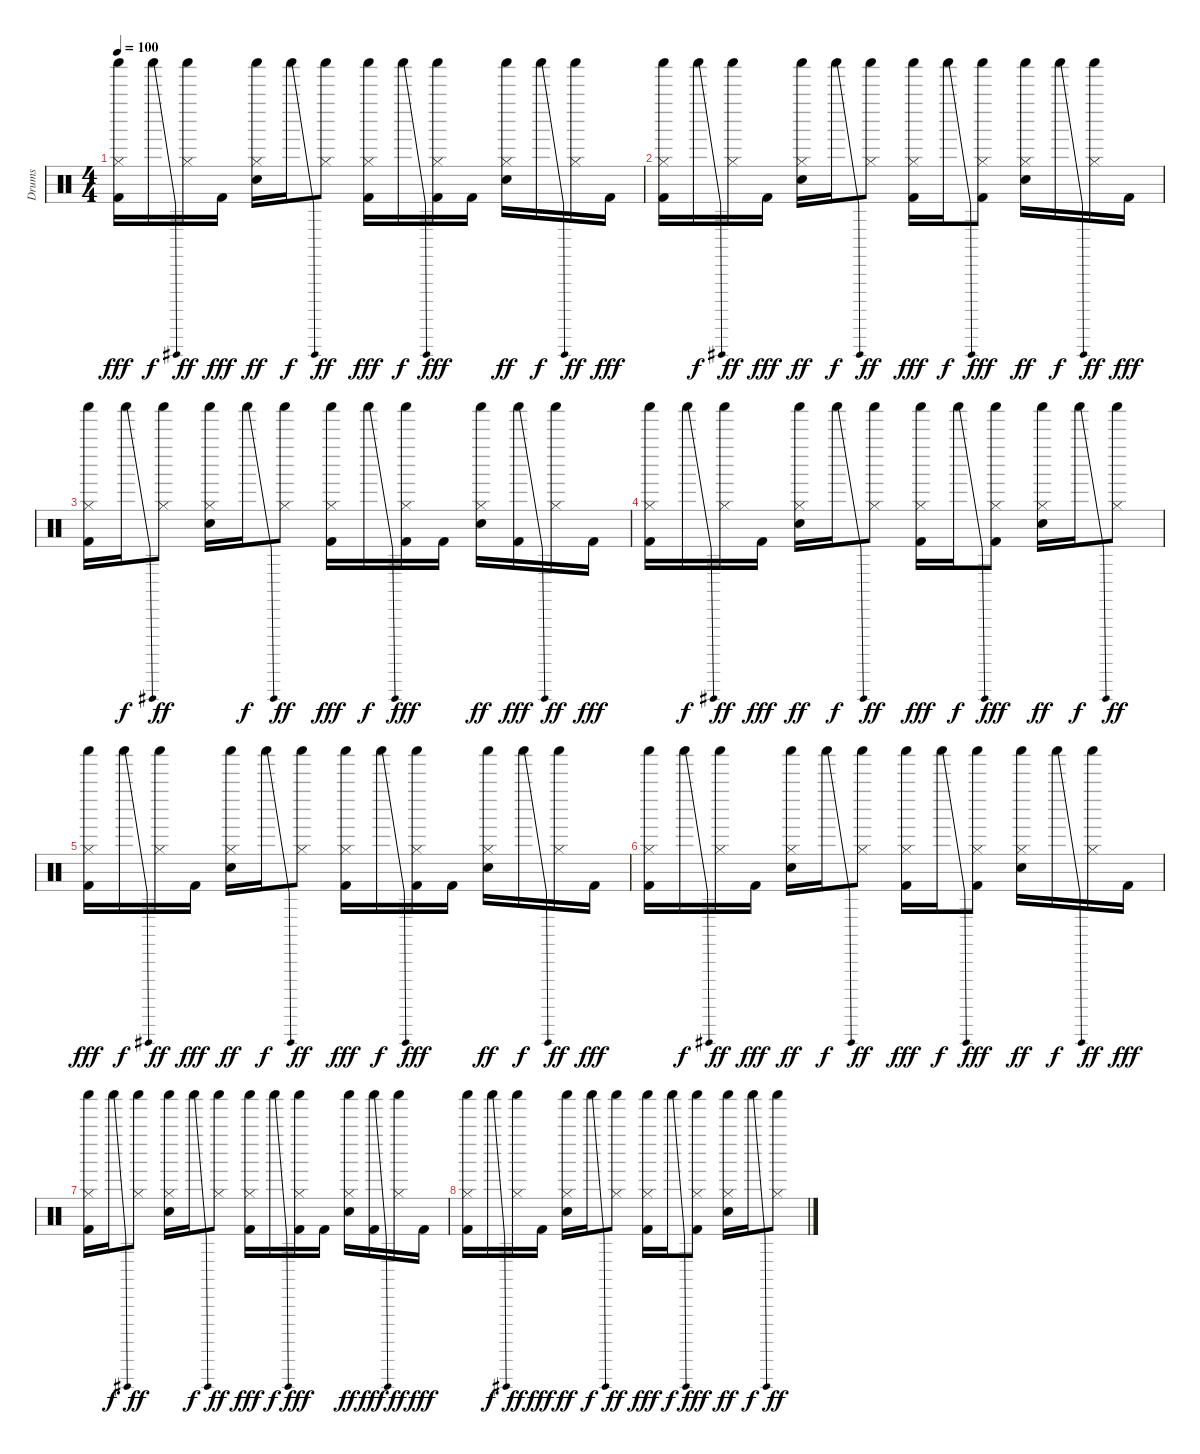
\track ("Drums" "Drums") {instrument percussion}
\staff {score}
\articulation defaults
\ts (4 4)
\tempo 100
\clef neutral
\ks c
("Shaker (hit)" "Hi-Hat (closed)" "Kick (hit) 2").16{dy fff volume 7} "Shaker (hit)"{be (bend 0 0 60 12)}.16{dy f} ("Shaker (hit)" "Hi-Hat (closed)").16{dy ff} "Kick (hit) 2".16{dy fff} ("Shaker (hit)" "Hi-Hat (closed)" "Electric Snare (hit)").16{dy ff} "Shaker (hit)"{be (bend 0 0 60 12)}.16{dy f} ("Shaker (hit)" "Hi-Hat (closed)").8{dy ff} ("Shaker (hit)" "Hi-Hat (closed)" "Kick (hit) 2").16{dy fff} "Shaker (hit)"{be (bend 0 0 60 12)}.16{dy f} ("Shaker (hit)" "Hi-Hat (closed)" "Kick (hit) 2").16{dy fff} "Kick (hit) 2".16 ("Shaker (hit)" "Hi-Hat (closed)" "Electric Snare (hit)").16{dy ff} "Shaker (hit)"{be (bend 0 0 60 12)}.16{dy f} ("Shaker (hit)" "Hi-Hat (closed)").16{dy ff} "Kick (hit) 2".16{dy fff} |
("Shaker (hit)" "Hi-Hat (closed)" "Kick (hit) 2").16 "Shaker (hit)"{be (bend 0 0 60 12)}.16{dy f} ("Shaker (hit)" "Hi-Hat (closed)").16{dy ff} "Kick (hit) 2".16{dy fff} ("Shaker (hit)" "Hi-Hat (closed)" "Electric Snare (hit)").16{dy ff} "Shaker (hit)"{be (bend 0 0 60 12)}.16{dy f} ("Shaker (hit)" "Hi-Hat (closed)").8{dy ff} ("Shaker (hit)" "Hi-Hat (closed)" "Kick (hit) 2").16{dy fff} "Shaker (hit)"{be (bend 0 0 60 12)}.16{dy f} ("Shaker (hit)" "Hi-Hat (closed)" "Kick (hit) 2").8{dy fff} ("Shaker (hit)" "Hi-Hat (closed)" "Electric Snare (hit)").16{dy ff} "Shaker (hit)"{be (bend 0 0 60 12)}.16{dy f} ("Shaker (hit)" "Hi-Hat (closed)").16{dy ff} "Kick (hit) 2".16{dy fff} |
("Shaker (hit)" "Hi-Hat (closed)" "Kick (hit) 2").16 "Shaker (hit)"{be (bend 0 0 60 12)}.16{dy f} ("Shaker (hit)" "Hi-Hat (closed)").8{dy ff} ("Shaker (hit)" "Hi-Hat (closed)" "Electric Snare (hit)").16 "Shaker (hit)"{be (bend 0 0 60 12)}.16{dy f} ("Shaker (hit)" "Hi-Hat (closed)").8{dy ff} ("Shaker (hit)" "Hi-Hat (closed)" "Kick (hit) 2").16{dy fff} "Shaker (hit)"{be (bend 0 0 60 12)}.16{dy f} ("Shaker (hit)" "Hi-Hat (closed)" "Kick (hit) 2").16{dy fff} "Kick (hit) 2".16 ("Shaker (hit)" "Hi-Hat (closed)" "Electric Snare (hit)").16{dy ff} ("Shaker (hit)"{be (bend 0 0 60 12)} "Kick (hit) 2").16{dy fff} ("Shaker (hit)" "Hi-Hat (closed)").16{dy ff} "Kick (hit) 2".16{dy fff} |
("Shaker (hit)" "Hi-Hat (closed)" "Kick (hit) 2").16 "Shaker (hit)"{be (bend 0 0 60 12)}.16{dy f} ("Shaker (hit)" "Hi-Hat (closed)").16{dy ff} "Kick (hit) 2".16{dy fff} ("Shaker (hit)" "Hi-Hat (closed)" "Electric Snare (hit)").16{dy ff} "Shaker (hit)"{be (bend 0 0 60 12)}.16{dy f} ("Shaker (hit)" "Hi-Hat (closed)").8{dy ff} ("Shaker (hit)" "Hi-Hat (closed)" "Kick (hit) 2").16{dy fff} "Shaker (hit)"{be (bend 0 0 60 12)}.16{dy f} ("Shaker (hit)" "Hi-Hat (closed)" "Kick (hit) 2").8{dy fff} ("Shaker (hit)" "Hi-Hat (closed)" "Electric Snare (hit)").16{dy ff} "Shaker (hit)"{be (bend 0 0 60 12)}.16{dy f} ("Shaker (hit)" "Hi-Hat (closed)").8{dy ff} |
("Shaker (hit)" "Hi-Hat (closed)" "Kick (hit) 2").16{dy fff volume 1} "Shaker (hit)"{be (bend 0 0 60 12)}.16{dy f} ("Shaker (hit)" "Hi-Hat (closed)").16{dy ff} "Kick (hit) 2".16{dy fff} ("Shaker (hit)" "Hi-Hat (closed)" "Electric Snare (hit)").16{dy ff} "Shaker (hit)"{be (bend 0 0 60 12)}.16{dy f} ("Shaker (hit)" "Hi-Hat (closed)").8{dy ff} ("Shaker (hit)" "Hi-Hat (closed)" "Kick (hit) 2").16{dy fff} "Shaker (hit)"{be (bend 0 0 60 12)}.16{dy f} ("Shaker (hit)" "Hi-Hat (closed)" "Kick (hit) 2").16{dy fff} "Kick (hit) 2".16 ("Shaker (hit)" "Hi-Hat (closed)" "Electric Snare (hit)").16{dy ff} "Shaker (hit)"{be (bend 0 0 60 12)}.16{dy f} ("Shaker (hit)" "Hi-Hat (closed)").16{dy ff} "Kick (hit) 2".16{dy fff} |
("Shaker (hit)" "Hi-Hat (closed)" "Kick (hit) 2").16 "Shaker (hit)"{be (bend 0 0 60 12)}.16{dy f} ("Shaker (hit)" "Hi-Hat (closed)").16{dy ff} "Kick (hit) 2".16{dy fff} ("Shaker (hit)" "Hi-Hat (closed)" "Electric Snare (hit)").16{dy ff} "Shaker (hit)"{be (bend 0 0 60 12)}.16{dy f} ("Shaker (hit)" "Hi-Hat (closed)").8{dy ff} ("Shaker (hit)" "Hi-Hat (closed)" "Kick (hit) 2").16{dy fff} "Shaker (hit)"{be (bend 0 0 60 12)}.16{dy f} ("Shaker (hit)" "Hi-Hat (closed)" "Kick (hit) 2").8{dy fff} ("Shaker (hit)" "Hi-Hat (closed)" "Electric Snare (hit)").16{dy ff} "Shaker (hit)"{be (bend 0 0 60 12)}.16{dy f} ("Shaker (hit)" "Hi-Hat (closed)").16{dy ff} "Kick (hit) 2".16{dy fff} |
("Shaker (hit)" "Hi-Hat (closed)" "Kick (hit) 2").16 "Shaker (hit)"{be (bend 0 0 60 12)}.16{dy f} ("Shaker (hit)" "Hi-Hat (closed)").8{dy ff} ("Shaker (hit)" "Hi-Hat (closed)" "Electric Snare (hit)").16 "Shaker (hit)"{be (bend 0 0 60 12)}.16{dy f} ("Shaker (hit)" "Hi-Hat (closed)").8{dy ff} ("Shaker (hit)" "Hi-Hat (closed)" "Kick (hit) 2").16{dy fff} "Shaker (hit)"{be (bend 0 0 60 12)}.16{dy f} ("Shaker (hit)" "Hi-Hat (closed)" "Kick (hit) 2").16{dy fff} "Kick (hit) 2".16 ("Shaker (hit)" "Hi-Hat (closed)" "Electric Snare (hit)").16{dy ff} ("Shaker (hit)"{be (bend 0 0 60 12)} "Kick (hit) 2").16{dy fff} ("Shaker (hit)" "Hi-Hat (closed)").16{dy ff} "Kick (hit) 2".16{dy fff} |
("Shaker (hit)" "Hi-Hat (closed)" "Kick (hit) 2").16 "Shaker (hit)"{be (bend 0 0 60 12)}.16{dy f} ("Shaker (hit)" "Hi-Hat (closed)").16{dy ff} "Kick (hit) 2".16{dy fff} ("Shaker (hit)" "Hi-Hat (closed)" "Electric Snare (hit)").16{dy ff} "Shaker (hit)"{be (bend 0 0 60 12)}.16{dy f} ("Shaker (hit)" "Hi-Hat (closed)").8{dy ff} ("Shaker (hit)" "Hi-Hat (closed)" "Kick (hit) 2").16{dy fff} "Shaker (hit)"{be (bend 0 0 60 12)}.16{dy f} ("Shaker (hit)" "Hi-Hat (closed)" "Kick (hit) 2").8{dy fff} ("Shaker (hit)" "Hi-Hat (closed)" "Electric Snare (hit)").16{dy ff} "Shaker (hit)"{be (bend 0 0 60 12)}.16{dy f} ("Shaker (hit)" "Hi-Hat (closed)").8{dy ff}
